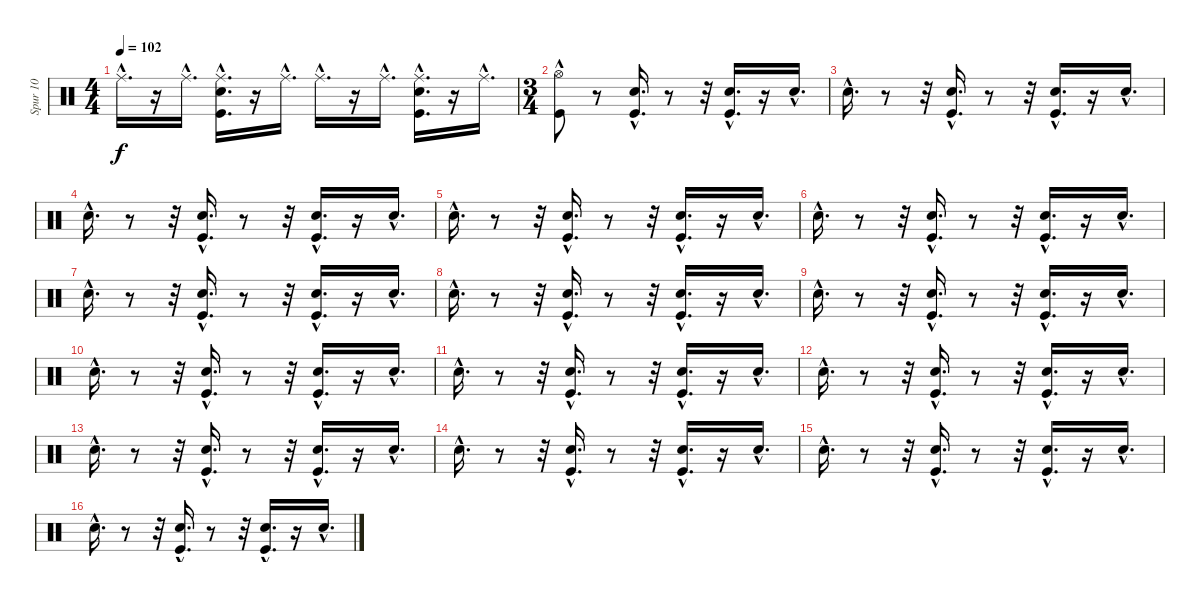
\track ("Spur 10" "Spur 10") {instrument percussion}
\staff {score}
\articulation defaults
\ts (4 4)
\tempo 102
\clef neutral
\ks c "Ride (middle)"{hac}.16{d dy f}
r.16 "Ride (middle)"{hac}.16{d} ("Ride (middle)"{hac} "Hand Clap (hit)"{hac} "Kick (hit)"{hac}).16{d} r.16 "Ride (middle)"{hac}.16{d} "Ride (middle)"{hac}.16{d} r.16 "Ride (middle)"{hac}.16{d} ("Ride (middle)"{hac} "Hand Clap (hit)"{hac} "Kick (hit)"{hac}).16{d} r.16 "Ride (middle)"{hac}.16{d} |
\ts (3 4)
("Kick (hit)" "Hi-Hat (open)"{hac}).8 r.8 ("Kick (hit)"{hac} "Snare (hit) 2"{hac}).16{d} r.8 r.32 ("Kick (hit)"{hac} "Snare (hit) 2"{hac}).16{d} r.16 "Hand Clap (hit)"{hac}.16{d} |
"Snare (hit) 2"{hac}.16{d} r.8 r.32 ("Kick (hit)"{hac} "Snare (hit) 2"{hac}).16{d} r.8 r.32 ("Kick (hit)"{hac} "Snare (hit) 2"{hac}).16{d} r.16 "Hand Clap (hit)"{hac}.16{d} |
"Snare (hit) 2"{hac}.16{d} r.8 r.32 ("Kick (hit)"{hac} "Snare (hit) 2"{hac}).16{d} r.8 r.32 ("Kick (hit)"{hac} "Snare (hit) 2"{hac}).16{d} r.16 "Hand Clap (hit)"{hac}.16{d} |
"Snare (hit) 2"{hac}.16{d} r.8 r.32 ("Kick (hit)"{hac} "Snare (hit) 2"{hac}).16{d} r.8 r.32 ("Kick (hit)"{hac} "Snare (hit) 2"{hac}).16{d} r.16 "Hand Clap (hit)"{hac}.16{d} |
"Snare (hit) 2"{hac}.16{d} r.8 r.32 ("Kick (hit)"{hac} "Snare (hit) 2"{hac}).16{d} r.8 r.32 ("Kick (hit)"{hac} "Snare (hit) 2"{hac}).16{d} r.16 "Hand Clap (hit)"{hac}.16{d} |
"Snare (hit) 2"{hac}.16{d} r.8 r.32 ("Kick (hit)"{hac} "Snare (hit) 2"{hac}).16{d} r.8 r.32 ("Kick (hit)"{hac} "Snare (hit) 2"{hac}).16{d} r.16 "Hand Clap (hit)"{hac}.16{d} |
"Snare (hit) 2"{hac}.16{d} r.8 r.32 ("Kick (hit)"{hac} "Snare (hit) 2"{hac}).16{d} r.8 r.32 ("Kick (hit)"{hac} "Snare (hit) 2"{hac}).16{d} r.16 "Hand Clap (hit)"{hac}.16{d} |
"Snare (hit) 2"{hac}.16{d} r.8 r.32 ("Kick (hit)"{hac} "Snare (hit) 2"{hac}).16{d} r.8 r.32 ("Kick (hit)"{hac} "Snare (hit) 2"{hac}).16{d} r.16 "Hand Clap (hit)"{hac}.16{d} |
"Snare (hit) 2"{hac}.16{d} r.8 r.32 ("Kick (hit)"{hac} "Snare (hit) 2"{hac}).16{d} r.8 r.32 ("Kick (hit)"{hac} "Snare (hit) 2"{hac}).16{d} r.16 "Hand Clap (hit)"{hac}.16{d} |
"Snare (hit) 2"{hac}.16{d} r.8 r.32 ("Kick (hit)"{hac} "Snare (hit) 2"{hac}).16{d} r.8 r.32 ("Kick (hit)"{hac} "Snare (hit) 2"{hac}).16{d} r.16 "Hand Clap (hit)"{hac}.16{d} |
"Snare (hit) 2"{hac}.16{d} r.8 r.32 ("Kick (hit)"{hac} "Snare (hit) 2"{hac}).16{d} r.8 r.32 ("Kick (hit)"{hac} "Snare (hit) 2"{hac}).16{d} r.16 "Hand Clap (hit)"{hac}.16{d} |
"Snare (hit) 2"{hac}.16{d} r.8 r.32 ("Kick (hit)"{hac} "Snare (hit) 2"{hac}).16{d} r.8 r.32 ("Kick (hit)"{hac} "Snare (hit) 2"{hac}).16{d} r.16 "Hand Clap (hit)"{hac}.16{d} |
"Snare (hit) 2"{hac}.16{d} r.8 r.32 ("Kick (hit)"{hac} "Snare (hit) 2"{hac}).16{d} r.8 r.32 ("Kick (hit)"{hac} "Snare (hit) 2"{hac}).16{d} r.16 "Hand Clap (hit)"{hac}.16{d} |
"Snare (hit) 2"{hac}.16{d} r.8 r.32 ("Kick (hit)"{hac} "Snare (hit) 2"{hac}).16{d} r.8 r.32 ("Kick (hit)"{hac} "Snare (hit) 2"{hac}).16{d} r.16 "Hand Clap (hit)"{hac}.16{d} |
"Snare (hit) 2"{hac}.16{d} r.8 r.32 ("Kick (hit)"{hac} "Snare (hit) 2"{hac}).16{d} r.8 r.32 ("Kick (hit)"{hac} "Snare (hit) 2"{hac}).16{d} r.16 "Hand Clap (hit)"{hac}.16{d}
